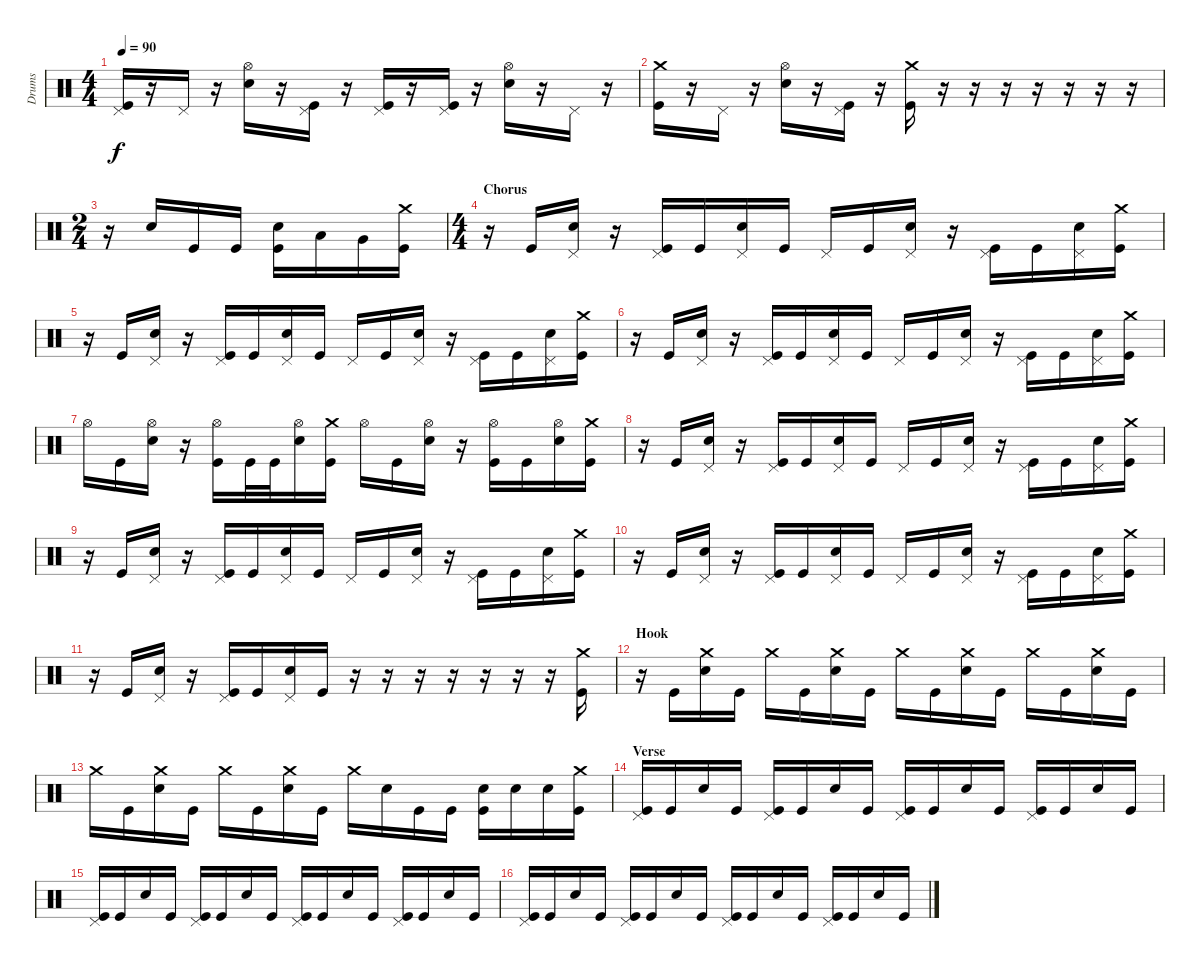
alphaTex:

\track ("Drums" "Drums") {instrument percussion}
\staff {score}
\articulation defaults
\ts (4 4)
\tempo 90
\clef neutral
\ks c
("Pedal Hi-Hat (hit)" "Kick (hit)").16{dy f} r.16 "Pedal Hi-Hat (hit)".16 r.16 ("Hi-Hat (open)" "Snare (hit) 2").16 r.16 ("Pedal Hi-Hat (hit)" "Kick (hit)").16 r.16 ("Pedal Hi-Hat (hit)" "Kick (hit)").16 r.16 ("Pedal Hi-Hat (hit)" "Kick (hit)").16 r.16 ("Hi-Hat (open)" "Snare (hit) 2").16 r.16 "Pedal Hi-Hat (hit)".16 r.16 |
("Crash medium (hit)" "Kick (hit)").16 r.16 "Pedal Hi-Hat (hit)".16 r.16 ("Hi-Hat (open)" "Snare (hit) 2").16 r.16 ("Pedal Hi-Hat (hit)" "Kick (hit)").16 r.16 ("Crash medium (hit)" "Kick (hit)").16 r.16 r.16 r.16 r.16 r.16 r.16 r.16 |
\ts (2 4)
r.16 "Snare (hit) 2".16 "Kick (hit)".16 "Kick (hit)".16 ("Snare (hit) 2" "Kick (hit)").16 "Low Tom (hit)".16 "Very Low Tom (hit)".16 ("Crash medium (hit)" "Kick (hit)").16 |
\ts (4 4)
\section ("" "Chorus")
r.16 "Kick (hit)".16 ("Pedal Hi-Hat (hit)" "Snare (hit) 2").16 r.16 ("Pedal Hi-Hat (hit)" "Kick (hit)").16 "Kick (hit)".16 ("Pedal Hi-Hat (hit)" "Snare (hit) 2").16 "Kick (hit)".16 "Pedal Hi-Hat (hit)".16 "Kick (hit)".16 ("Pedal Hi-Hat (hit)" "Snare (hit) 2").16 r.16 ("Pedal Hi-Hat (hit)" "Kick (hit)").16 "Kick (hit)".16 ("Pedal Hi-Hat (hit)" "Snare (hit) 2").16 ("Crash medium (hit)" "Kick (hit)").16 |
r.16 "Kick (hit)".16 ("Pedal Hi-Hat (hit)" "Snare (hit) 2").16 r.16 ("Pedal Hi-Hat (hit)" "Kick (hit)").16 "Kick (hit)".16 ("Pedal Hi-Hat (hit)" "Snare (hit) 2").16 "Kick (hit)".16 "Pedal Hi-Hat (hit)".16 "Kick (hit)".16 ("Pedal Hi-Hat (hit)" "Snare (hit) 2").16 r.16 ("Pedal Hi-Hat (hit)" "Kick (hit)").16 "Kick (hit)".16 ("Pedal Hi-Hat (hit)" "Snare (hit) 2").16 ("Crash medium (hit)" "Kick (hit)").16 |
r.16 "Kick (hit)".16 ("Pedal Hi-Hat (hit)" "Snare (hit) 2").16 r.16 ("Pedal Hi-Hat (hit)" "Kick (hit)").16 "Kick (hit)".16 ("Pedal Hi-Hat (hit)" "Snare (hit) 2").16 "Kick (hit)".16 "Pedal Hi-Hat (hit)".16 "Kick (hit)".16 ("Pedal Hi-Hat (hit)" "Snare (hit) 2").16 r.16 ("Pedal Hi-Hat (hit)" "Kick (hit)").16 "Kick (hit)".16 ("Pedal Hi-Hat (hit)" "Snare (hit) 2").16 ("Crash medium (hit)" "Kick (hit)").16 |
"Hi-Hat (open)".16 "Kick (hit)".16 ("Hi-Hat (open)" "Snare (hit) 2").16 r.16 ("Hi-Hat (open)" "Kick (hit)").16 "Kick (hit)".32 "Kick (hit)".32 ("Hi-Hat (open)" "Snare (hit) 2").16 ("Crash medium (hit)" "Kick (hit)").16 "Hi-Hat (open)".16 "Kick (hit)".16 ("Hi-Hat (open)" "Snare (hit) 2").16 r.16 ("Hi-Hat (open)" "Kick (hit)").16 "Kick (hit)".16 ("Hi-Hat (open)" "Snare (hit) 2").16 ("Crash medium (hit)" "Kick (hit)").16 |
r.16 "Kick (hit)".16 ("Pedal Hi-Hat (hit)" "Snare (hit) 2").16 r.16 ("Pedal Hi-Hat (hit)" "Kick (hit)").16 "Kick (hit)".16 ("Pedal Hi-Hat (hit)" "Snare (hit) 2").16 "Kick (hit)".16 "Pedal Hi-Hat (hit)".16 "Kick (hit)".16 ("Pedal Hi-Hat (hit)" "Snare (hit) 2").16 r.16 ("Pedal Hi-Hat (hit)" "Kick (hit)").16 "Kick (hit)".16 ("Pedal Hi-Hat (hit)" "Snare (hit) 2").16 ("Crash medium (hit)" "Kick (hit)").16 |
r.16 "Kick (hit)".16 ("Pedal Hi-Hat (hit)" "Snare (hit) 2").16 r.16 ("Pedal Hi-Hat (hit)" "Kick (hit)").16 "Kick (hit)".16 ("Pedal Hi-Hat (hit)" "Snare (hit) 2").16 "Kick (hit)".16 "Pedal Hi-Hat (hit)".16 "Kick (hit)".16 ("Pedal Hi-Hat (hit)" "Snare (hit) 2").16 r.16 ("Pedal Hi-Hat (hit)" "Kick (hit)").16 "Kick (hit)".16 ("Pedal Hi-Hat (hit)" "Snare (hit) 2").16 ("Crash medium (hit)" "Kick (hit)").16 |
r.16 "Kick (hit)".16 ("Pedal Hi-Hat (hit)" "Snare (hit) 2").16 r.16 ("Pedal Hi-Hat (hit)" "Kick (hit)").16 "Kick (hit)".16 ("Pedal Hi-Hat (hit)" "Snare (hit) 2").16 "Kick (hit)".16 "Pedal Hi-Hat (hit)".16 "Kick (hit)".16 ("Pedal Hi-Hat (hit)" "Snare (hit) 2").16 r.16 ("Pedal Hi-Hat (hit)" "Kick (hit)").16 "Kick (hit)".16 ("Pedal Hi-Hat (hit)" "Snare (hit) 2").16 ("Crash medium (hit)" "Kick (hit)").16 |
r.16 "Kick (hit)".16 ("Pedal Hi-Hat (hit)" "Snare (hit) 2").16 r.16 ("Pedal Hi-Hat (hit)" "Kick (hit)").16 "Kick (hit)".16 ("Pedal Hi-Hat (hit)" "Snare (hit) 2").16 "Kick (hit)".16 r.16 r.16 r.16 r.16 r.16 r.16 r.16 ("Crash medium (hit)" "Kick (hit)").16 |
\section ("" "Hook")
r.16 "Kick (hit)".16 ("Crash medium (hit)" "Snare (hit) 2").16 "Kick (hit)".16 "Crash medium (hit)".16 "Kick (hit)".16 ("Crash medium (hit)" "Snare (hit) 2").16 "Kick (hit)".16 "Crash medium (hit)".16 "Kick (hit)".16 ("Crash medium (hit)" "Snare (hit) 2").16 "Kick (hit)".16 "Crash medium (hit)".16 "Kick (hit)".16 ("Crash medium (hit)" "Snare (hit) 2").16 "Kick (hit)".16 |
"Crash medium (hit)".16 "Kick (hit)".16 ("Crash medium (hit)" "Snare (hit) 2").16 "Kick (hit)".16 "Crash medium (hit)".16 "Kick (hit)".16 ("Crash medium (hit)" "Snare (hit) 2").16 "Kick (hit)".16 "Crash medium (hit)".16 "Snare (hit) 2".16 "Kick (hit)".16 "Kick (hit)".16 ("Snare (hit) 2" "Kick (hit)").16 "Snare (hit) 2".16 "Snare (hit) 2".16 ("Crash medium (hit)" "Kick (hit)").16 |
\section ("" "Verse")
("Pedal Hi-Hat (hit)" "Kick (hit)").16 "Kick (hit)".16 "Snare (hit) 2".16 "Kick (hit)".16 ("Pedal Hi-Hat (hit)" "Kick (hit)").16 "Kick (hit)".16 "Snare (hit) 2".16 "Kick (hit)".16 ("Pedal Hi-Hat (hit)" "Kick (hit)").16 "Kick (hit)".16 "Snare (hit) 2".16 "Kick (hit)".16 ("Pedal Hi-Hat (hit)" "Kick (hit)").16 "Kick (hit)".16 "Snare (hit) 2".16 "Kick (hit)".16 |
("Pedal Hi-Hat (hit)" "Kick (hit)").16 "Kick (hit)".16 "Snare (hit) 2".16 "Kick (hit)".16 ("Pedal Hi-Hat (hit)" "Kick (hit)").16 "Kick (hit)".16 "Snare (hit) 2".16 "Kick (hit)".16 ("Pedal Hi-Hat (hit)" "Kick (hit)").16 "Kick (hit)".16 "Snare (hit) 2".16 "Kick (hit)".16 ("Pedal Hi-Hat (hit)" "Kick (hit)").16 "Kick (hit)".16 "Snare (hit) 2".16 "Kick (hit)".16 |
("Pedal Hi-Hat (hit)" "Kick (hit)").16 "Kick (hit)".16 "Snare (hit) 2".16 "Kick (hit)".16 ("Pedal Hi-Hat (hit)" "Kick (hit)").16 "Kick (hit)".16 "Snare (hit) 2".16 "Kick (hit)".16 ("Pedal Hi-Hat (hit)" "Kick (hit)").16 "Kick (hit)".16 "Snare (hit) 2".16 "Kick (hit)".16 ("Pedal Hi-Hat (hit)" "Kick (hit)").16 "Kick (hit)".16 "Snare (hit) 2".16 "Kick (hit)".16
